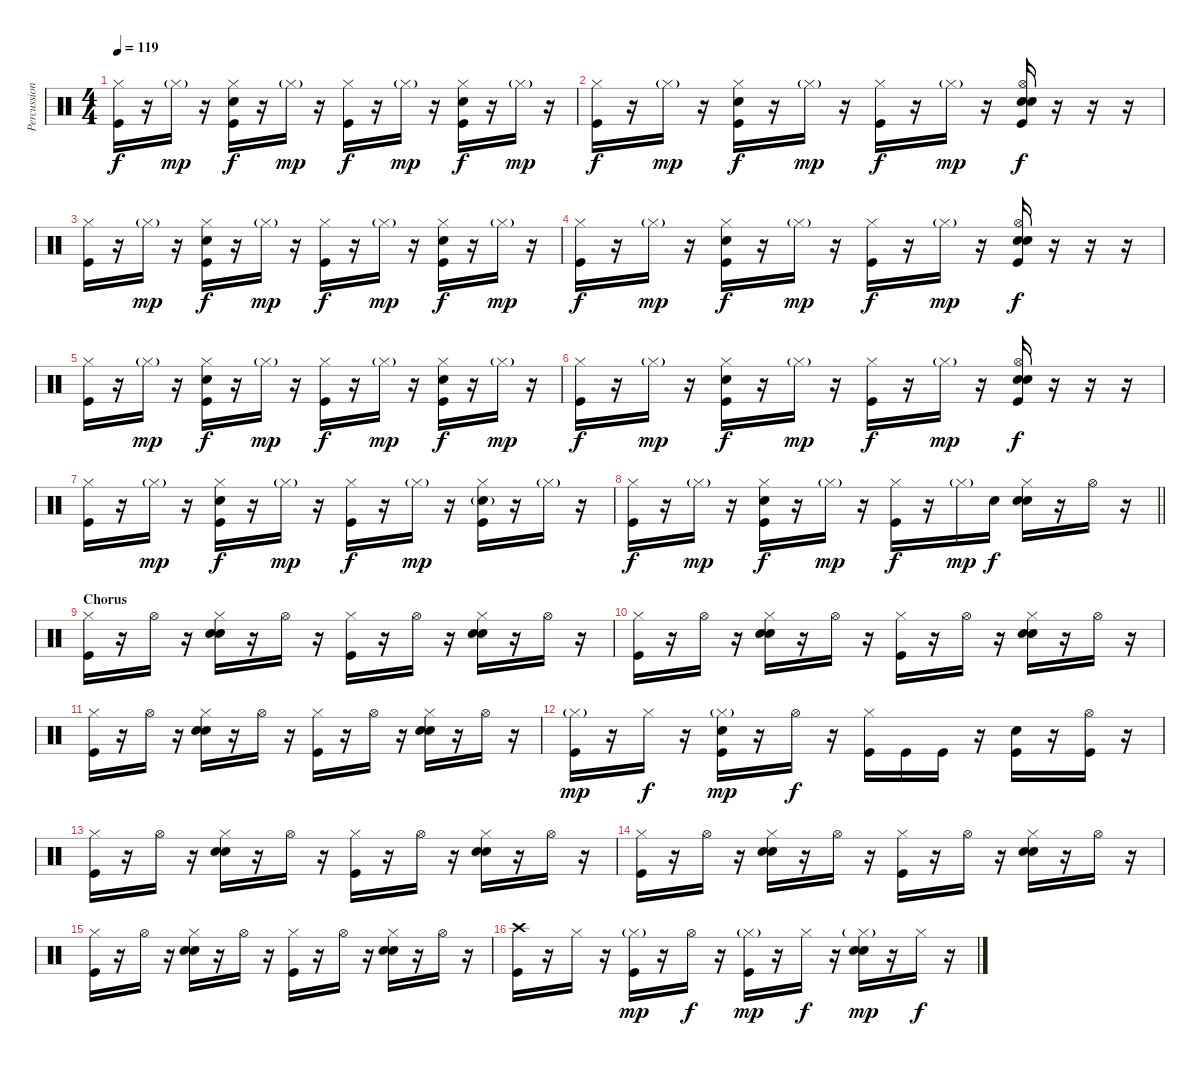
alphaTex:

\track ("Percussion" "Percussion") {instrument percussion}
\staff {score}
\articulation defaults
\ts (4 4)
\tempo 119
\clef neutral
\ks c
("Hi-Hat (closed)" "Kick (hit)").16{dy f} r.16 "Hi-Hat (closed)"{g}.16{dy mp} r.16 ("Hi-Hat (closed)" "Snare (hit) 2" "Kick (hit)").16{dy f} r.16 "Hi-Hat (closed)"{g}.16{dy mp} r.16 ("Hi-Hat (closed)" "Kick (hit)").16{dy f} r.16 "Hi-Hat (closed)"{g}.16{dy mp} r.16 ("Hi-Hat (closed)" "Snare (hit) 2" "Kick (hit)").16{dy f} r.16 "Hi-Hat (closed)"{g}.16{dy mp} r.16 |
("Hi-Hat (closed)" "Kick (hit)").16{dy f} r.16 "Hi-Hat (closed)"{g}.16{dy mp} r.16 ("Hi-Hat (closed)" "Snare (hit) 2" "Kick (hit)").16{dy f} r.16 "Hi-Hat (closed)"{g}.16{dy mp} r.16 ("Hi-Hat (closed)" "Kick (hit)").16{dy f} r.16 "Hi-Hat (closed)"{g}.16{dy mp} r.16 ("Hi-Hat (open)" "Hand Clap (hit)" "Snare (hit) 2" "Kick (hit)").16{dy f} r.16 r.16 r.16 |
("Hi-Hat (closed)" "Kick (hit)").16 r.16 "Hi-Hat (closed)"{g}.16{dy mp} r.16 ("Hi-Hat (closed)" "Snare (hit) 2" "Kick (hit)").16{dy f} r.16 "Hi-Hat (closed)"{g}.16{dy mp} r.16 ("Hi-Hat (closed)" "Kick (hit)").16{dy f} r.16 "Hi-Hat (closed)"{g}.16{dy mp} r.16 ("Hi-Hat (closed)" "Snare (hit) 2" "Kick (hit)").16{dy f} r.16 "Hi-Hat (closed)"{g}.16{dy mp} r.16 |
("Hi-Hat (closed)" "Kick (hit)").16{dy f} r.16 "Hi-Hat (closed)"{g}.16{dy mp} r.16 ("Hi-Hat (closed)" "Snare (hit) 2" "Kick (hit)").16{dy f} r.16 "Hi-Hat (closed)"{g}.16{dy mp} r.16 ("Hi-Hat (closed)" "Kick (hit)").16{dy f} r.16 "Hi-Hat (closed)"{g}.16{dy mp} r.16 ("Hi-Hat (open)" "Hand Clap (hit)" "Snare (hit) 2" "Kick (hit)").16{dy f} r.16 r.16 r.16 |
("Hi-Hat (closed)" "Kick (hit)").16 r.16 "Hi-Hat (closed)"{g}.16{dy mp} r.16 ("Hi-Hat (closed)" "Snare (hit) 2" "Kick (hit)").16{dy f} r.16 "Hi-Hat (closed)"{g}.16{dy mp} r.16 ("Hi-Hat (closed)" "Kick (hit)").16{dy f} r.16 "Hi-Hat (closed)"{g}.16{dy mp} r.16 ("Hi-Hat (closed)" "Snare (hit) 2" "Kick (hit)").16{dy f} r.16 "Hi-Hat (closed)"{g}.16{dy mp} r.16 |
("Hi-Hat (closed)" "Kick (hit)").16{dy f} r.16 "Hi-Hat (closed)"{g}.16{dy mp} r.16 ("Hi-Hat (closed)" "Snare (hit) 2" "Kick (hit)").16{dy f} r.16 "Hi-Hat (closed)"{g}.16{dy mp} r.16 ("Hi-Hat (closed)" "Kick (hit)").16{dy f} r.16 "Hi-Hat (closed)"{g}.16{dy mp} r.16 ("Hi-Hat (open)" "Hand Clap (hit)" "Snare (hit) 2" "Kick (hit)").16{dy f} r.16 r.16 r.16 |
("Hi-Hat (closed)" "Kick (hit)").16 r.16 "Hi-Hat (closed)"{g}.16{dy mp} r.16 ("Hi-Hat (closed)" "Snare (hit) 2" "Kick (hit)").16{dy f} r.16 "Hi-Hat (closed)"{g}.16{dy mp} r.16 ("Hi-Hat (closed)" "Kick (hit)").16{dy f} r.16 "Hi-Hat (closed)"{g}.16{dy mp} r.16 ("Hi-Hat (closed)" "Snare (hit) 2"{g} "Kick (hit)").16 r.16 "Hi-Hat (closed)"{g}.16 r.16 |
\barLineRight lightlight
("Hi-Hat (closed)" "Kick (hit)").16{dy f} r.16 "Hi-Hat (closed)"{g}.16{dy mp} r.16 ("Hi-Hat (closed)" "Snare (hit) 2" "Kick (hit)").16{dy f} r.16 "Hi-Hat (closed)"{g}.16{dy mp} r.16 ("Hi-Hat (closed)" "Kick (hit)").16{dy f} r.16 "Hi-Hat (closed)"{g}.16{dy mp} "Snare (hit) 2".16{dy f} ("Hi-Hat (closed)" "Hand Clap (hit)" "Snare (hit) 2").16 r.16 "Hi-Hat (open)".16 r.16 |
\section ("" "Chorus")
("Hi-Hat (closed)" "Kick (hit)").16 r.16 "Hi-Hat (open)".16 r.16 ("Hi-Hat (closed)" "Hand Clap (hit)" "Snare (hit) 2").16 r.16 "Hi-Hat (open)".16 r.16 ("Hi-Hat (closed)" "Kick (hit)").16 r.16 "Hi-Hat (open)".16 r.16 ("Hi-Hat (closed)" "Hand Clap (hit)" "Snare (hit) 2").16 r.16 "Hi-Hat (open)".16 r.16 |
("Hi-Hat (closed)" "Kick (hit)").16 r.16 "Hi-Hat (open)".16 r.16 ("Hi-Hat (closed)" "Hand Clap (hit)" "Snare (hit) 2").16 r.16 "Hi-Hat (open)".16 r.16 ("Hi-Hat (closed)" "Kick (hit)").16 r.16 "Hi-Hat (open)".16 r.16 ("Hi-Hat (closed)" "Hand Clap (hit)" "Snare (hit) 2").16 r.16 "Hi-Hat (open)".16 r.16 |
("Hi-Hat (closed)" "Kick (hit)").16 r.16 "Hi-Hat (open)".16 r.16 ("Hi-Hat (closed)" "Hand Clap (hit)" "Snare (hit) 2").16 r.16 "Hi-Hat (open)".16 r.16 ("Hi-Hat (closed)" "Kick (hit)").16 r.16 "Hi-Hat (open)".16 r.16 ("Hi-Hat (closed)" "Hand Clap (hit)" "Snare (hit) 2").16 r.16 "Hi-Hat (open)".16 r.16 |
("Hi-Hat (closed)"{g} "Kick (hit)").16{dy mp} r.16 "Hi-Hat (closed)".16{dy f} r.16 ("Hi-Hat (closed)"{g} "Hand Clap (hit)" "Kick (hit)").16{dy mp} r.16 "Hi-Hat (open)".16{dy f} r.16 ("Hi-Hat (closed)" "Kick (hit)").16 "Kick (hit)".16 "Kick (hit)".16 r.16 ("Hand Clap (hit)" "Kick (hit)").16 r.16 ("Hi-Hat (open)" "Kick (hit)").16 r.16 |
("Hi-Hat (closed)" "Kick (hit)").16 r.16 "Hi-Hat (open)".16 r.16 ("Hi-Hat (closed)" "Hand Clap (hit)" "Snare (hit) 2").16 r.16 "Hi-Hat (open)".16 r.16 ("Hi-Hat (closed)" "Kick (hit)").16 r.16 "Hi-Hat (open)".16 r.16 ("Hi-Hat (closed)" "Hand Clap (hit)" "Snare (hit) 2").16 r.16 "Hi-Hat (open)".16 r.16 |
("Hi-Hat (closed)" "Kick (hit)").16 r.16 "Hi-Hat (open)".16 r.16 ("Hi-Hat (closed)" "Hand Clap (hit)" "Snare (hit) 2").16 r.16 "Hi-Hat (open)".16 r.16 ("Hi-Hat (closed)" "Kick (hit)").16 r.16 "Hi-Hat (open)".16 r.16 ("Hi-Hat (closed)" "Hand Clap (hit)" "Snare (hit) 2").16 r.16 "Hi-Hat (open)".16 r.16 |
("Hi-Hat (closed)" "Kick (hit)").16 r.16 "Hi-Hat (open)".16 r.16 ("Hi-Hat (closed)" "Hand Clap (hit)" "Snare (hit) 2").16 r.16 "Hi-Hat (open)".16 r.16 ("Hi-Hat (closed)" "Kick (hit)").16 r.16 "Hi-Hat (open)".16 r.16 ("Hi-Hat (closed)" "Hand Clap (hit)" "Snare (hit) 2").16 r.16 "Hi-Hat (open)".16 r.16 |
("Crash high (hit)" "Kick (hit)").16 r.16 "Hi-Hat (closed)".16 r.16 ("Hi-Hat (closed)"{g} "Kick (hit)").16{dy mp} r.16 "Hi-Hat (open)".16{dy f} r.16 ("Hi-Hat (closed)"{g} "Kick (hit)").16{dy mp} r.16 "Hi-Hat (closed)".16{dy f} r.16 ("Hi-Hat (closed)"{g} "Hand Clap (hit)" "Snare (hit) 2").16{dy mp} r.16 "Hi-Hat (closed)".16{dy f} r.16
